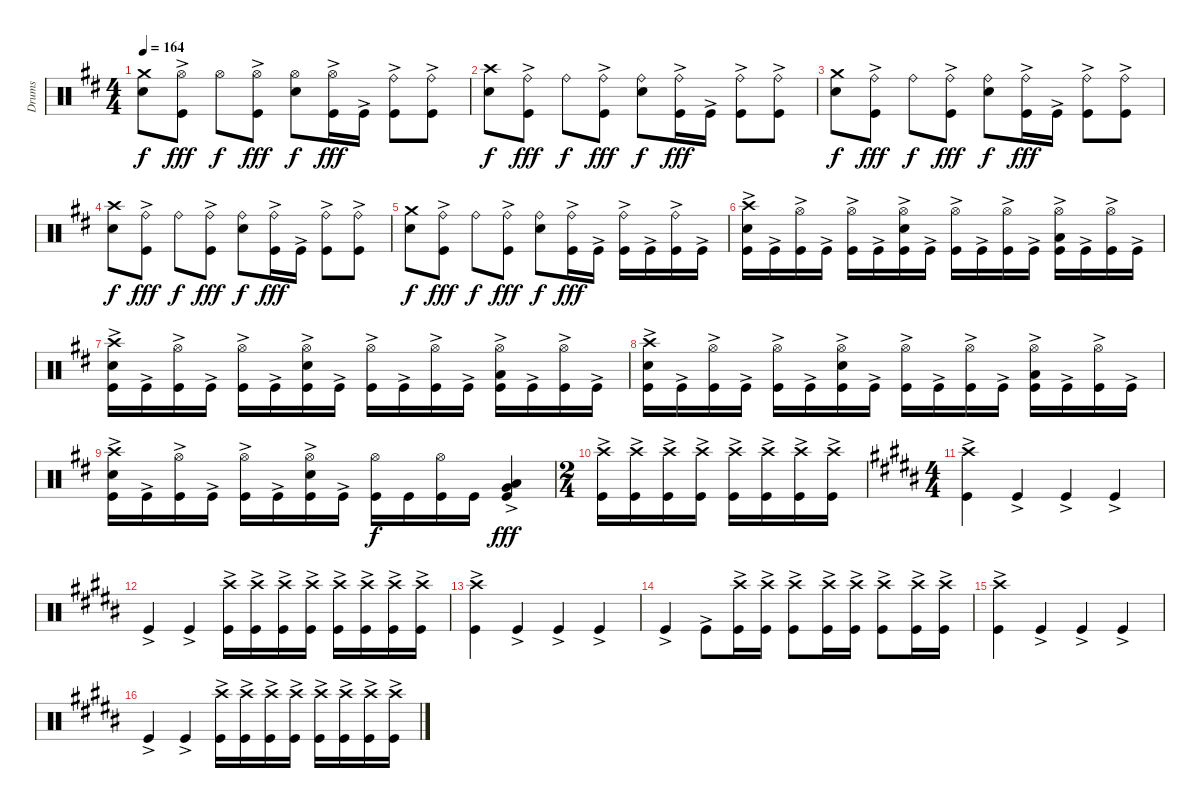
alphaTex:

\track ("Drums" "Drums") {instrument percussion}
\staff {score}
\articulation defaults
\ts (4 4)
\tempo 164
\clef neutral
\ks bminor
("Crash medium (hit)" "Snare (hit) 2").8{dy f} ("Hi-Hat (open)" "Kick (hit)"{ac}).8{dy fff} "Hi-Hat (open)".8{dy f} ("Hi-Hat (open)" "Kick (hit)"{ac}).8{dy fff} ("Hi-Hat (open)" "Snare (hit) 2").8{dy f} ("Hi-Hat (open)" "Kick (hit)"{ac}).16{dy fff} "Kick (hit)"{ac}.16 ("Ride (bell)" "Kick (hit)"{ac}).8 ("Ride (bell)" "Kick (hit)"{ac}).8 |
("Crash high (hit)" "Snare (hit) 2").8{dy f} ("Ride (bell)" "Kick (hit)"{ac}).8{dy fff} "Ride (bell)".8{dy f} ("Ride (bell)" "Kick (hit)"{ac}).8{dy fff} ("Ride (bell)" "Snare (hit) 2").8{dy f} ("Ride (bell)" "Kick (hit)"{ac}).16{dy fff} "Kick (hit)"{ac}.16 ("Ride (bell)" "Kick (hit)"{ac}).8 ("Ride (bell)" "Kick (hit)"{ac}).8 |
("Crash medium (hit)" "Snare (hit) 2").8{dy f} ("Ride (bell)" "Kick (hit)"{ac}).8{dy fff} "Ride (bell)".8{dy f} ("Ride (bell)" "Kick (hit)"{ac}).8{dy fff} ("Ride (bell)" "Snare (hit) 2").8{dy f} ("Ride (bell)" "Kick (hit)"{ac}).16{dy fff} "Kick (hit)"{ac}.16 ("Ride (bell)" "Kick (hit)"{ac}).8 ("Ride (bell)" "Kick (hit)"{ac}).8 |
("Crash high (hit)" "Snare (hit) 2").8{dy f} ("Ride (bell)" "Kick (hit)"{ac}).8{dy fff} "Ride (bell)".8{dy f} ("Ride (bell)" "Kick (hit)"{ac}).8{dy fff} ("Ride (bell)" "Snare (hit) 2").8{dy f} ("Ride (bell)" "Kick (hit)"{ac}).16{dy fff} "Kick (hit)"{ac}.16 ("Ride (bell)" "Kick (hit)"{ac}).8 ("Ride (bell)" "Kick (hit)"{ac}).8 |
("Crash medium (hit)" "Snare (hit) 2").8{dy f} ("Ride (bell)" "Kick (hit)"{ac}).8{dy fff} "Ride (bell)".8{dy f} ("Ride (bell)" "Kick (hit)"{ac}).8{dy fff} ("Ride (bell)" "Snare (hit) 2").8{dy f} ("Ride (bell)" "Kick (hit)"{ac}).16{dy fff} "Kick (hit)"{ac}.16 ("Ride (bell)" "Kick (hit)"{ac}).16 "Kick (hit)"{ac}.16 ("Ride (bell)" "Kick (hit)"{ac}).16 "Kick (hit)"{ac}.16 |
("Crash high (hit)" "Snare (hit) 2" "Kick (hit)"{ac}).16 "Kick (hit)"{ac}.16 ("Hi-Hat (open)" "Kick (hit)"{ac}).16 "Kick (hit)"{ac}.16 ("Hi-Hat (open)" "Kick (hit)"{ac}).16 "Kick (hit)"{ac}.16 ("Hi-Hat (open)" "Snare (hit) 2" "Kick (hit)"{ac}).16 "Kick (hit)"{ac}.16 ("Hi-Hat (open)" "Kick (hit)"{ac}).16 "Kick (hit)"{ac}.16 ("Hi-Hat (open)" "Kick (hit)"{ac}).16 "Kick (hit)"{ac}.16 ("Hi-Hat (open)" "Low Tom (hit)"{ac} "Kick (hit)"{ac}).16 "Kick (hit)"{ac}.16 ("Hi-Hat (open)" "Kick (hit)"{ac}).16 "Kick (hit)"{ac}.16 |
("Crash high (hit)" "Snare (hit) 2" "Kick (hit)"{ac}).16 "Kick (hit)"{ac}.16 ("Hi-Hat (open)" "Kick (hit)"{ac}).16 "Kick (hit)"{ac}.16 ("Hi-Hat (open)" "Kick (hit)"{ac}).16 "Kick (hit)"{ac}.16 ("Hi-Hat (open)" "Snare (hit) 2" "Kick (hit)"{ac}).16 "Kick (hit)"{ac}.16 ("Hi-Hat (open)" "Kick (hit)"{ac}).16 "Kick (hit)"{ac}.16 ("Hi-Hat (open)" "Kick (hit)"{ac}).16 "Kick (hit)"{ac}.16 ("Hi-Hat (open)" "Low Tom (hit)"{ac} "Kick (hit)"{ac}).16 "Kick (hit)"{ac}.16 ("Hi-Hat (open)" "Kick (hit)"{ac}).16 "Kick (hit)"{ac}.16 |
("Crash high (hit)" "Snare (hit) 2" "Kick (hit)"{ac}).16 "Kick (hit)"{ac}.16 ("Hi-Hat (open)" "Kick (hit)"{ac}).16 "Kick (hit)"{ac}.16 ("Hi-Hat (open)" "Kick (hit)"{ac}).16 "Kick (hit)"{ac}.16 ("Hi-Hat (open)" "Snare (hit) 2" "Kick (hit)"{ac}).16 "Kick (hit)"{ac}.16 ("Hi-Hat (open)" "Kick (hit)"{ac}).16 "Kick (hit)"{ac}.16 ("Hi-Hat (open)" "Kick (hit)"{ac}).16 "Kick (hit)"{ac}.16 ("Hi-Hat (open)" "Low Tom (hit)"{ac} "Kick (hit)"{ac}).16 "Kick (hit)"{ac}.16 ("Hi-Hat (open)" "Kick (hit)"{ac}).16 "Kick (hit)"{ac}.16 |
("Crash high (hit)" "Snare (hit) 2" "Kick (hit)"{ac}).16 "Kick (hit)"{ac}.16 ("Hi-Hat (open)" "Kick (hit)"{ac}).16 "Kick (hit)"{ac}.16 ("Hi-Hat (open)" "Kick (hit)"{ac}).16 "Kick (hit)"{ac}.16 ("Hi-Hat (open)" "Snare (hit) 2" "Kick (hit)"{ac}).16 "Kick (hit)"{ac}.16 ("Hi-Hat (open)" "Kick (hit)").16{dy f} "Kick (hit)".16 ("Hi-Hat (open)" "Kick (hit)").16 "Kick (hit)".16 ("Low Tom (hit)"{ac} "Very Low Tom (hit)"{ac} "Kick (hit)"{ac}).4{dy fff} |
\ts (2 4)
("Crash high (hit)" "Kick (hit)"{ac}).16 ("Crash high (hit)" "Kick (hit)"{ac}).16 ("Crash high (hit)" "Kick (hit)"{ac}).16 ("Crash high (hit)" "Kick (hit)"{ac}).16 ("Crash high (hit)" "Kick (hit)"{ac}).16 ("Crash high (hit)" "Kick (hit)"{ac}).16 ("Crash high (hit)" "Kick (hit)"{ac}).16 ("Crash high (hit)" "Kick (hit)"{ac}).16 |
\ts (4 4)
\ks g#minor
("Crash high (hit)" "Kick (hit)"{ac}).4 "Kick (hit)"{ac}.4 "Kick (hit)"{ac}.4 "Kick (hit)"{ac}.4 |
"Kick (hit)"{ac}.4 "Kick (hit)"{ac}.4 ("Crash high (hit)" "Kick (hit)"{ac}).16 ("Crash high (hit)" "Kick (hit)"{ac}).16 ("Crash high (hit)" "Kick (hit)"{ac}).16 ("Crash high (hit)" "Kick (hit)"{ac}).16 ("Crash high (hit)" "Kick (hit)"{ac}).16 ("Crash high (hit)" "Kick (hit)"{ac}).16 ("Crash high (hit)" "Kick (hit)"{ac}).16 ("Crash high (hit)" "Kick (hit)"{ac}).16 |
("Crash high (hit)" "Kick (hit)"{ac}).4 "Kick (hit)"{ac}.4 "Kick (hit)"{ac}.4 "Kick (hit)"{ac}.4 |
"Kick (hit)"{ac}.4 "Kick (hit)"{ac}.8 ("Crash high (hit)" "Kick (hit)"{ac}).16 ("Crash high (hit)" "Kick (hit)"{ac}).16 ("Crash high (hit)" "Kick (hit)"{ac}).8 ("Crash high (hit)" "Kick (hit)"{ac}).16 ("Crash high (hit)" "Kick (hit)"{ac}).16 ("Crash high (hit)" "Kick (hit)"{ac}).8 ("Crash high (hit)" "Kick (hit)"{ac}).16 ("Crash high (hit)" "Kick (hit)"{ac}).16 |
("Crash high (hit)" "Kick (hit)"{ac}).4 "Kick (hit)"{ac}.4 "Kick (hit)"{ac}.4 "Kick (hit)"{ac}.4 |
"Kick (hit)"{ac}.4 "Kick (hit)"{ac}.4 ("Crash high (hit)" "Kick (hit)"{ac}).16 ("Crash high (hit)" "Kick (hit)"{ac}).16 ("Crash high (hit)" "Kick (hit)"{ac}).16 ("Crash high (hit)" "Kick (hit)"{ac}).16 ("Crash high (hit)" "Kick (hit)"{ac}).16 ("Crash high (hit)" "Kick (hit)"{ac}).16 ("Crash high (hit)" "Kick (hit)"{ac}).16 ("Crash high (hit)" "Kick (hit)"{ac}).16
